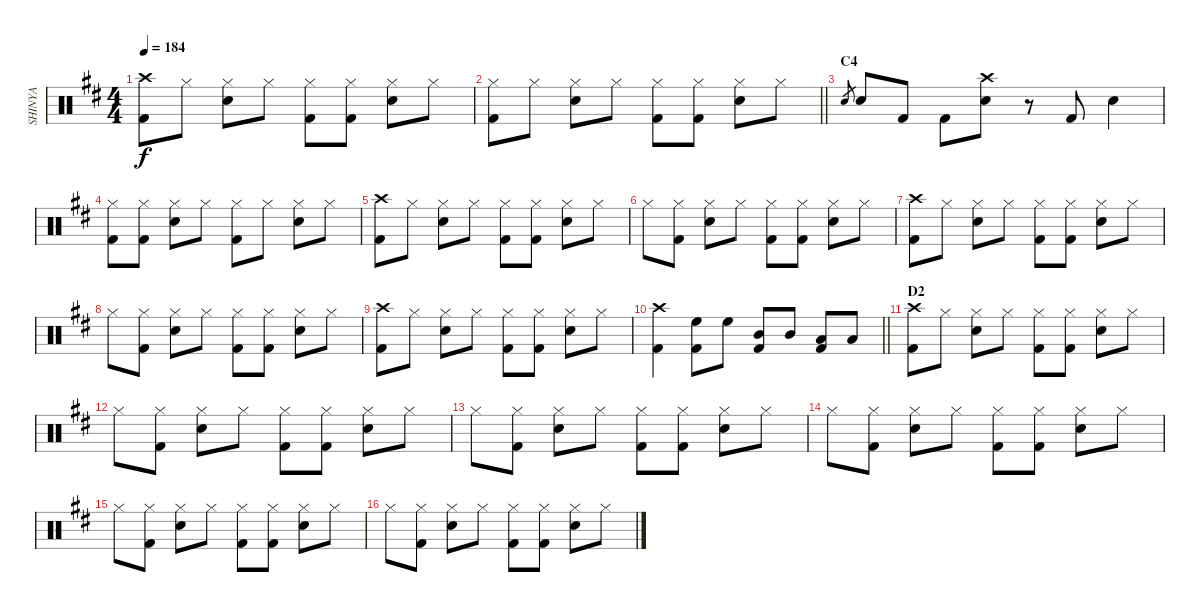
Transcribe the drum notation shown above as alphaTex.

\track ("SHINYA" "SHINYA") {instrument percussion}
\staff {score}
\articulation defaults
\ts (4 4)
\tempo 184
\clef neutral
\ks bminor
("Crash high (hit)" "Kick (hit) 2").8{dy f} "Hi-Hat (closed)".8 ("Hi-Hat (closed)" "Snare (hit) 2").8 "Hi-Hat (closed)".8 ("Hi-Hat (closed)" "Kick (hit) 2").8 ("Hi-Hat (closed)" "Kick (hit) 2").8 ("Hi-Hat (closed)" "Snare (hit) 2").8 "Hi-Hat (closed)".8 |
\barLineRight lightlight
("Hi-Hat (closed)" "Kick (hit) 2").8 "Hi-Hat (closed)".8 ("Hi-Hat (closed)" "Snare (hit) 2").8 "Hi-Hat (closed)".8 ("Hi-Hat (closed)" "Kick (hit) 2").8 ("Hi-Hat (closed)" "Kick (hit) 2").8 ("Hi-Hat (closed)" "Snare (hit) 2").8 "Hi-Hat (closed)".8 |
\section ("" "C4")
"Snare (hit) 2".8{gr} "Snare (hit) 2".8 "Kick (hit) 2".8 "Kick (hit) 2".8 ("Crash high (hit)" "Snare (hit) 2").8 r.8 "Kick (hit) 2".8 "Snare (hit) 2".4 |
("Hi-Hat (closed)" "Kick (hit) 2").8 ("Hi-Hat (closed)" "Kick (hit) 2").8 ("Hi-Hat (closed)" "Snare (hit) 2").8 "Hi-Hat (closed)".8 ("Hi-Hat (closed)" "Kick (hit) 2").8 "Hi-Hat (closed)".8 ("Hi-Hat (closed)" "Snare (hit) 2").8 "Hi-Hat (closed)".8 |
("Crash high (hit)" "Kick (hit) 2").8 "Hi-Hat (closed)".8 ("Hi-Hat (closed)" "Snare (hit) 2").8 "Hi-Hat (closed)".8 ("Hi-Hat (closed)" "Kick (hit) 2").8 ("Hi-Hat (closed)" "Kick (hit) 2").8 ("Hi-Hat (closed)" "Snare (hit) 2").8 "Hi-Hat (closed)".8 |
"Hi-Hat (closed)".8 ("Hi-Hat (closed)" "Kick (hit) 2").8 ("Hi-Hat (closed)" "Snare (hit) 2").8 "Hi-Hat (closed)".8 ("Hi-Hat (closed)" "Kick (hit) 2").8 ("Hi-Hat (closed)" "Kick (hit) 2").8 ("Hi-Hat (closed)" "Snare (hit) 2").8 "Hi-Hat (closed)".8 |
("Crash high (hit)" "Kick (hit) 2").8 "Hi-Hat (closed)".8 ("Hi-Hat (closed)" "Snare (hit) 2").8 "Hi-Hat (closed)".8 ("Hi-Hat (closed)" "Kick (hit) 2").8 ("Hi-Hat (closed)" "Kick (hit) 2").8 ("Hi-Hat (closed)" "Snare (hit) 2").8 "Hi-Hat (closed)".8 |
"Hi-Hat (closed)".8 ("Hi-Hat (closed)" "Kick (hit) 2").8 ("Hi-Hat (closed)" "Snare (hit) 2").8 "Hi-Hat (closed)".8 ("Hi-Hat (closed)" "Kick (hit) 2").8 ("Hi-Hat (closed)" "Kick (hit) 2").8 ("Hi-Hat (closed)" "Snare (hit) 2").8 "Hi-Hat (closed)".8 |
("Crash high (hit)" "Kick (hit) 2").8 "Hi-Hat (closed)".8 ("Hi-Hat (closed)" "Snare (hit) 2").8 "Hi-Hat (closed)".8 ("Hi-Hat (closed)" "Kick (hit) 2").8 ("Hi-Hat (closed)" "Kick (hit) 2").8 ("Hi-Hat (closed)" "Snare (hit) 2").8 "Hi-Hat (closed)".8 |
\barLineRight lightlight
("Crash high (hit)" "Kick (hit) 2").4 ("High Floor Tom (hit)" "Kick (hit) 2").8 "High Floor Tom (hit)".8 ("Mid Tom (hit)" "Kick (hit) 2").8 "Mid Tom (hit)".8 ("Low Tom (hit)" "Kick (hit) 2").8 "Low Tom (hit)".8 |
\section ("" "D2")
("Crash high (hit)" "Kick (hit) 2").8 "Hi-Hat (closed)".8 ("Hi-Hat (closed)" "Snare (hit) 2").8 "Hi-Hat (closed)".8 ("Hi-Hat (closed)" "Kick (hit) 2").8 ("Hi-Hat (closed)" "Kick (hit) 2").8 ("Hi-Hat (closed)" "Snare (hit) 2").8 "Hi-Hat (closed)".8 |
"Hi-Hat (closed)".8 ("Hi-Hat (closed)" "Kick (hit) 2").8 ("Hi-Hat (closed)" "Snare (hit) 2").8 "Hi-Hat (closed)".8 ("Hi-Hat (closed)" "Kick (hit) 2").8 ("Hi-Hat (closed)" "Kick (hit) 2").8 ("Hi-Hat (closed)" "Snare (hit) 2").8 "Hi-Hat (closed)".8 |
"Hi-Hat (closed)".8 ("Hi-Hat (closed)" "Kick (hit) 2").8 ("Hi-Hat (closed)" "Snare (hit) 2").8 "Hi-Hat (closed)".8 ("Hi-Hat (closed)" "Kick (hit) 2").8 ("Hi-Hat (closed)" "Kick (hit) 2").8 ("Hi-Hat (closed)" "Snare (hit) 2").8 "Hi-Hat (closed)".8 |
"Hi-Hat (closed)".8 ("Hi-Hat (closed)" "Kick (hit) 2").8 ("Hi-Hat (closed)" "Snare (hit) 2").8 "Hi-Hat (closed)".8 ("Hi-Hat (closed)" "Kick (hit) 2").8 ("Hi-Hat (closed)" "Kick (hit) 2").8 ("Hi-Hat (closed)" "Snare (hit) 2").8 "Hi-Hat (closed)".8 |
"Hi-Hat (closed)".8 ("Hi-Hat (closed)" "Kick (hit) 2").8 ("Hi-Hat (closed)" "Snare (hit) 2").8 "Hi-Hat (closed)".8 ("Hi-Hat (closed)" "Kick (hit) 2").8 ("Hi-Hat (closed)" "Kick (hit) 2").8 ("Hi-Hat (closed)" "Snare (hit) 2").8 "Hi-Hat (closed)".8 |
"Hi-Hat (closed)".8 ("Hi-Hat (closed)" "Kick (hit) 2").8 ("Hi-Hat (closed)" "Snare (hit) 2").8 "Hi-Hat (closed)".8 ("Hi-Hat (closed)" "Kick (hit) 2").8 ("Hi-Hat (closed)" "Kick (hit) 2").8 ("Hi-Hat (closed)" "Snare (hit) 2").8 "Hi-Hat (closed)".8
